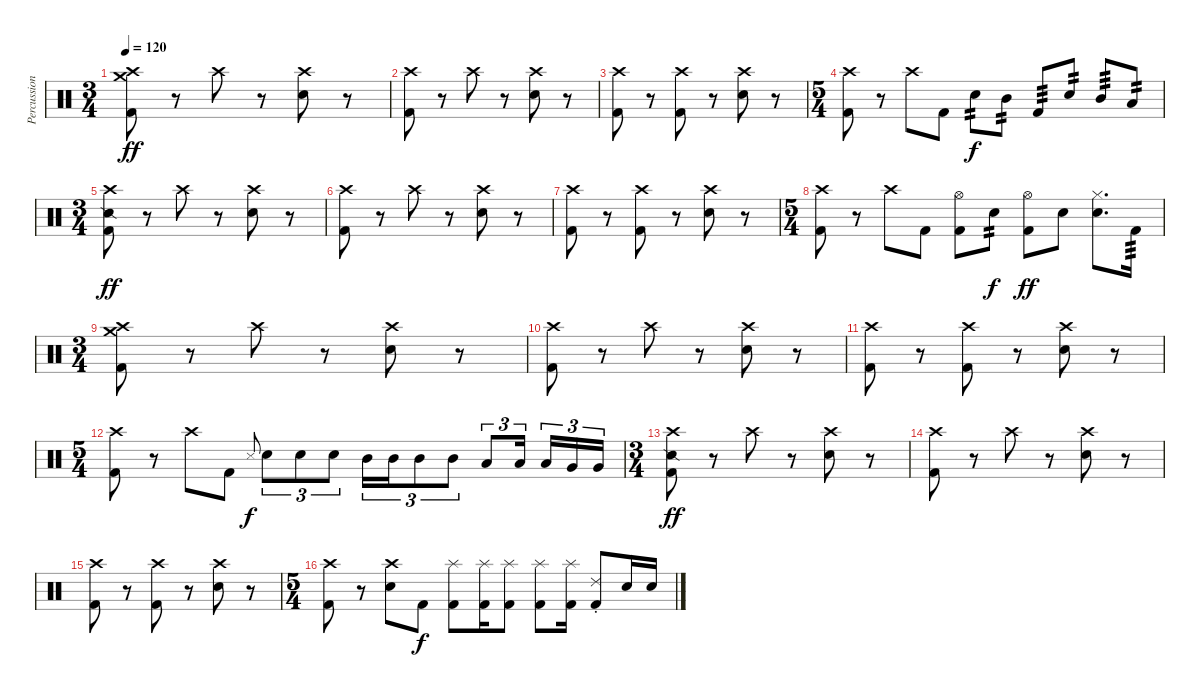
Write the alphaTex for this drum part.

\track ("Percussion" "Percussion") {instrument percussion}
\staff {score}
\articulation defaults
\ts (3 4)
\tempo 120
\clef neutral
\ks c
("Crash medium (hit)" "Crash high (hit)" "Kick (hit) 2").8{dy ff} r.8 "Crash high (hit)".8 r.8 ("Crash high (hit)" "Snare (hit) 2").8 r.8 |
("Crash high (hit)" "Kick (hit) 2").8 r.8 "Crash high (hit)".8 r.8 ("Crash high (hit)" "Snare (hit) 2").8 r.8 |
("Crash high (hit)" "Kick (hit) 2").8 r.8 ("Crash high (hit)" "Kick (hit) 2").8 r.8 ("Crash high (hit)" "Snare (hit) 2").8 r.8 |
\ts (5 4)
("Crash high (hit)" "Kick (hit) 2").8 r.8 "Crash high (hit)".8 "Kick (hit) 2".8 "Snare (hit) 2".8{tp 2 dy f} "Mid Tom (hit)".8{tp 2} "Kick (hit) 2".8{tp 3} "Snare (hit) 2".8{tp 2} "Mid Tom (hit)".8{tp 3} "Low Tom (hit)".8{tp 2} |
\ts (3 4)
("Snare (side stick) 2" "Crash high (hit)" "Kick (hit) 2").8{dy ff} r.8 "Crash high (hit)".8 r.8 ("Crash high (hit)" "Snare (hit) 2").8 r.8 |
("Crash high (hit)" "Kick (hit) 2").8 r.8 "Crash high (hit)".8 r.8 ("Crash high (hit)" "Snare (hit) 2").8 r.8 |
("Crash high (hit)" "Kick (hit) 2").8 r.8 ("Crash high (hit)" "Kick (hit) 2").8 r.8 ("Crash high (hit)" "Snare (hit) 2").8 r.8 |
\ts (5 4)
("Crash high (hit)" "Kick (hit) 2").8 r.8 "Crash high (hit)".8 "Kick (hit) 2".8 ("Hi-Hat (open)" "Kick (hit) 2").8 "Snare (hit) 2".8{tp 2 dy f} ("Hi-Hat (open)" "Kick (hit) 2").8{dy ff} "Snare (hit) 2".8 ("Hi-Hat (closed)" "Snare (hit) 2").8{d} "Kick (hit) 2".16{tp 3} |
\ts (3 4)
("Crash medium (hit)" "Crash high (hit)" "Kick (hit) 2").8 r.8 "Crash high (hit)".8 r.8 ("Crash high (hit)" "Snare (hit) 2").8 r.8 |
("Crash high (hit)" "Kick (hit) 2").8 r.8 "Crash high (hit)".8 r.8 ("Crash high (hit)" "Snare (hit) 2").8 r.8 |
("Crash high (hit)" "Kick (hit) 2").8 r.8 ("Crash high (hit)" "Kick (hit) 2").8 r.8 ("Crash high (hit)" "Snare (hit) 2").8 r.8 |
\ts (5 4)
("Crash high (hit)" "Kick (hit) 2").8 r.8 "Crash high (hit)".8 "Kick (hit) 2".8 "Metronome (hit)".8{gr onbeat dy f} "Snare (hit) 2".8{tu (3 2)} "Snare (hit) 2".8{tu (3 2)} "Snare (hit) 2".8{tu (3 2)} "Mid Tom (hit)".16{tu (3 2)} "Mid Tom (hit)".16{tu (3 2)} "Mid Tom (hit)".8{tu (3 2)} "Mid Tom (hit)".8{tu (3 2)} "Low Tom (hit)".8{tu (3 2)} "Low Tom (hit)".16{tu (3 2) beam splitsecondary} "Low Tom (hit)".16{tu (3 2)} "Very Low Tom (hit)".16{tu (3 2)} "Very Low Tom (hit)".16{tu (3 2)} |
\ts (3 4)
("Snare (side stick) 2" "Crash high (hit)" "Kick (hit) 2").8{dy ff} r.8 "Crash high (hit)".8 r.8 ("Crash high (hit)" "Snare (hit) 2").8 r.8 |
("Crash high (hit)" "Kick (hit) 2").8 r.8 "Crash high (hit)".8 r.8 ("Crash high (hit)" "Snare (hit) 2").8 r.8 |
("Crash high (hit)" "Kick (hit) 2").8 r.8 ("Crash high (hit)" "Kick (hit) 2").8 r.8 ("Crash high (hit)" "Snare (hit) 2").8 r.8 |
\ts (5 4)
("Crash high (hit)" "Kick (hit) 2").8 r.8 ("Crash high (hit)" "Snare (hit) 2").8 "Kick (hit) 2".8{dy f} ("Splash (hit)" "Kick (hit) 2").8 ("Splash (hit)" "Kick (hit) 2").16 ("Splash (hit)" "Kick (hit) 2").8 ("Splash (hit)" "Kick (hit) 2").8 ("Splash (hit)" "Kick (hit) 2").16 ("Ride (choke) 2" "Kick (hit) 2").8 "Snare (hit) 2".16 "Snare (hit) 2".16
